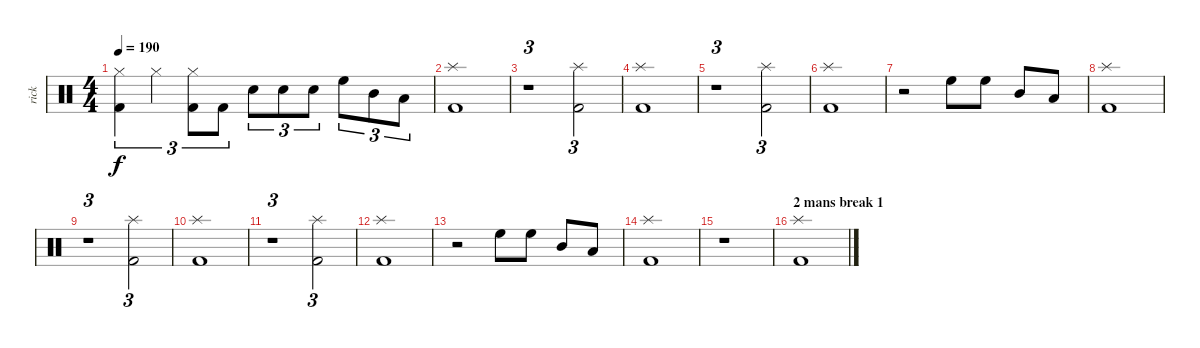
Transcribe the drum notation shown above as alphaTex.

\track ("rick" "rick") {instrument percussion}
\staff {score}
\articulation defaults
\ts (4 4)
\tempo 190
\clef neutral
\ks c
("Hi-Hat (closed)" "Kick (hit) 2").4{tu (3 2) dy f} "Hi-Hat (closed)".4{tu (3 2)} ("Hi-Hat (closed)" "Kick (hit) 2").8{tu (3 2)} "Kick (hit) 2".8{tu (3 2)} "Snare (hit) 2".8{tu (3 2)} "Snare (hit) 2".8{tu (3 2)} "Snare (hit) 2".8{tu (3 2)} "High Floor Tom (hit)".8{tu (3 2)} "Mid Tom (hit)".8{tu (3 2)} "Low Floor Tom (hit)".8{tu (3 2)} |
("Splash (hit)" "Kick (hit) 2").1 |
r.1{tu (3 2)} ("Splash (hit)" "Kick (hit) 2").2{tu (3 2)} |
("Splash (hit)" "Kick (hit) 2").1 |
r.1{tu (3 2)} ("Splash (hit)" "Kick (hit) 2").2{tu (3 2)} |
("Splash (hit)" "Kick (hit) 2").1 |
r.2 "High Floor Tom (hit)".8 "High Floor Tom (hit)".8 "Mid Tom (hit)".8 "Low Floor Tom (hit)".8 |
("Splash (hit)" "Kick (hit) 2").1 |
r.1{tu (3 2)} ("Splash (hit)" "Kick (hit) 2").2{tu (3 2)} |
("Splash (hit)" "Kick (hit) 2").1 |
r.1{tu (3 2)} ("Splash (hit)" "Kick (hit) 2").2{tu (3 2)} |
("Splash (hit)" "Kick (hit) 2").1 |
r.2 "High Floor Tom (hit)".8 "High Floor Tom (hit)".8 "Mid Tom (hit)".8 "Low Floor Tom (hit)".8 |
("Splash (hit)" "Kick (hit) 2").1 |
r.1 |
\section ("" "2 mans break 1")
("Splash (hit)" "Kick (hit) 2").1
